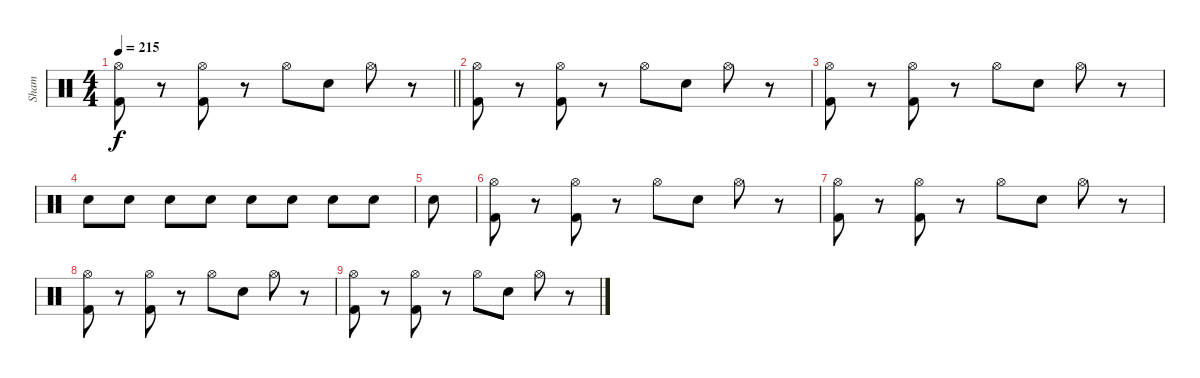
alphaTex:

\track ("Sham" "Sham") {instrument percussion}
\staff {score}
\articulation defaults
\ts (4 4)
\tempo 215
\clef neutral
\barLineRight lightlight
\ks c
("Kick (hit) 2" "Hi-Hat (open)").8{dy f} r.8 ("Kick (hit) 2" "Hi-Hat (open)").8 r.8 "Hi-Hat (open)".8 "Electric Snare (hit)".8 "Hi-Hat (open)".8 r.8 |
("Kick (hit) 2" "Hi-Hat (open)").8 r.8 ("Kick (hit) 2" "Hi-Hat (open)").8 r.8 "Hi-Hat (open)".8 "Electric Snare (hit)".8 "Hi-Hat (open)".8 r.8 |
("Kick (hit) 2" "Hi-Hat (open)").8 r.8 ("Kick (hit) 2" "Hi-Hat (open)").8 r.8 "Hi-Hat (open)".8 "Electric Snare (hit)".8 "Hi-Hat (open)".8 r.8 |
"Electric Snare (hit)".8 "Electric Snare (hit)".8 "Electric Snare (hit)".8 "Electric Snare (hit)".8 "Electric Snare (hit)".8 "Electric Snare (hit)".8 "Electric Snare (hit)".8 "Electric Snare (hit)".8 |
"Electric Snare (hit)".8 |
("Kick (hit) 2" "Hi-Hat (open)").8 r.8 ("Kick (hit) 2" "Hi-Hat (open)").8 r.8 "Hi-Hat (open)".8 "Electric Snare (hit)".8 "Hi-Hat (open)".8 r.8 |
("Kick (hit) 2" "Hi-Hat (open)").8 r.8 ("Kick (hit) 2" "Hi-Hat (open)").8 r.8 "Hi-Hat (open)".8 "Electric Snare (hit)".8 "Hi-Hat (open)".8 r.8 |
("Kick (hit) 2" "Hi-Hat (open)").8 r.8 ("Kick (hit) 2" "Hi-Hat (open)").8 r.8 "Hi-Hat (open)".8 "Electric Snare (hit)".8 "Hi-Hat (open)".8 r.8 |
("Kick (hit) 2" "Hi-Hat (open)").8 r.8 ("Kick (hit) 2" "Hi-Hat (open)").8 r.8 "Hi-Hat (open)".8 "Electric Snare (hit)".8 "Hi-Hat (open)".8 r.8
